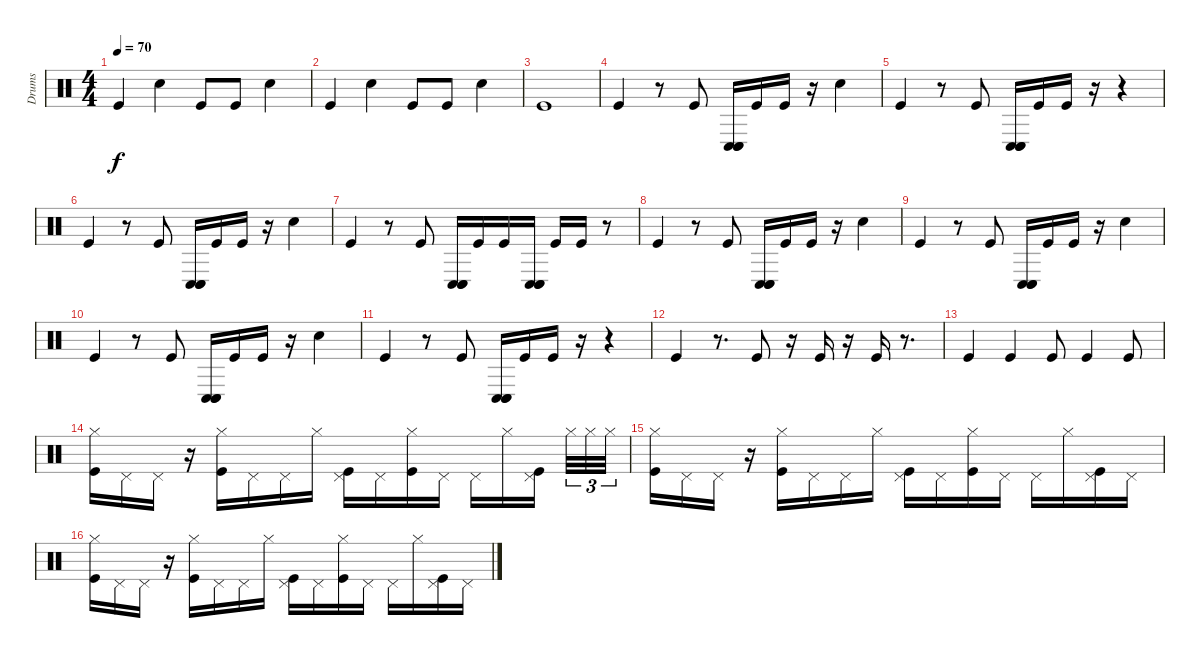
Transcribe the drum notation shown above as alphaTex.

\track ("Drums" "Drums") {instrument percussion}
\staff {score}
\articulation defaults
\ts (4 4)
\tempo 70
\clef neutral
\ks c "Kick (hit)".4{dy f} "Snare (hit) 2".4 "Kick (hit)".8 "Kick (hit)".8 "Snare (hit) 2".4
|
"Kick (hit)".4 "Snare (hit) 2".4 "Kick (hit)".8 "Kick (hit)".8 "Snare (hit) 2".4 |
"Kick (hit)".1 |
"Kick (hit)".4 r.8 "Kick (hit)".8 ("Conga low (hit)" "Conga low (hit)" "Conga low (hit)").16 "Kick (hit)".16 "Kick (hit)".16 r.16 "Snare (hit) 2".4 |
"Kick (hit)".4 r.8 "Kick (hit)".8 ("Conga low (hit)" "Conga low (hit)" "Conga low (hit)").16 "Kick (hit)".16 "Kick (hit)".16 r.16 r.4 |
"Kick (hit)".4 r.8 "Kick (hit)".8 ("Conga low (hit)" "Conga low (hit)" "Conga low (hit)").16 "Kick (hit)".16 "Kick (hit)".16 r.16 "Snare (hit) 2".4 |
"Kick (hit)".4 r.8 "Kick (hit)".8 ("Conga low (hit)" "Conga low (hit)" "Conga low (hit)").16 "Kick (hit)".16 "Kick (hit)".16 ("Conga low (hit)" "Conga low (hit)" "Conga low (hit)").16 "Kick (hit)".16 "Kick (hit)".16 r.8 |
"Kick (hit)".4 r.8 "Kick (hit)".8 ("Conga low (hit)" "Conga low (hit)" "Conga low (hit)").16 "Kick (hit)".16 "Kick (hit)".16 r.16 "Snare (hit) 2".4 |
"Kick (hit)".4 r.8 "Kick (hit)".8 ("Conga low (hit)" "Conga low (hit)" "Conga low (hit)").16 "Kick (hit)".16 "Kick (hit)".16 r.16 "Snare (hit) 2".4 |
"Kick (hit)".4 r.8 "Kick (hit)".8 ("Conga low (hit)" "Conga low (hit)" "Conga low (hit)").16 "Kick (hit)".16 "Kick (hit)".16 r.16 "Snare (hit) 2".4 |
"Kick (hit)".4 r.8 "Kick (hit)".8 ("Conga low (hit)" "Conga low (hit)" "Conga low (hit)").16 "Kick (hit)".16 "Kick (hit)".16 r.16 r.4 |
"Kick (hit)".4 r.8{d} "Kick (hit)".8 r.16 "Kick (hit)".16 r.16 "Kick (hit)".16 r.8{d} |
"Kick (hit)".4 "Kick (hit)".4 "Kick (hit)".8 "Kick (hit)".4 "Kick (hit)".8 |
("Hi-Hat (closed)" "Kick (hit)").16 "Pedal Hi-Hat (hit)".16 "Pedal Hi-Hat (hit)".16 r.16 ("Hi-Hat (closed)" "Kick (hit)").16 "Pedal Hi-Hat (hit)".16 "Pedal Hi-Hat (hit)".16 "Hi-Hat (closed)".16 ("Pedal Hi-Hat (hit)" "Kick (hit)").16 "Pedal Hi-Hat (hit)".16 ("Hi-Hat (closed)" "Kick (hit)").16 "Pedal Hi-Hat (hit)".16 "Pedal Hi-Hat (hit)".16 "Hi-Hat (closed)".16 ("Pedal Hi-Hat (hit)" "Kick (hit)").16 "Hi-Hat (closed)".32{tu (3 2)} "Hi-Hat (closed)".32{tu (3 2)} "Hi-Hat (closed)".32{tu (3 2)} |
("Hi-Hat (closed)" "Kick (hit)").16 "Pedal Hi-Hat (hit)".16 "Pedal Hi-Hat (hit)".16 r.16 ("Hi-Hat (closed)" "Kick (hit)").16 "Pedal Hi-Hat (hit)".16 "Pedal Hi-Hat (hit)".16 "Hi-Hat (closed)".16 ("Pedal Hi-Hat (hit)" "Kick (hit)").16 "Pedal Hi-Hat (hit)".16 ("Hi-Hat (closed)" "Kick (hit)").16 "Pedal Hi-Hat (hit)".16 "Pedal Hi-Hat (hit)".16 "Hi-Hat (closed)".16 ("Pedal Hi-Hat (hit)" "Kick (hit)").16 "Pedal Hi-Hat (hit)".16 |
("Hi-Hat (closed)" "Kick (hit)").16 "Pedal Hi-Hat (hit)".16 "Pedal Hi-Hat (hit)".16 r.16 ("Hi-Hat (closed)" "Kick (hit)").16 "Pedal Hi-Hat (hit)".16 "Pedal Hi-Hat (hit)".16 "Hi-Hat (closed)".16 ("Pedal Hi-Hat (hit)" "Kick (hit)").16 "Pedal Hi-Hat (hit)".16 ("Hi-Hat (closed)" "Kick (hit)").16 "Pedal Hi-Hat (hit)".16 "Pedal Hi-Hat (hit)".16 "Hi-Hat (closed)".16 ("Pedal Hi-Hat (hit)" "Kick (hit)").16 "Pedal Hi-Hat (hit)".16
